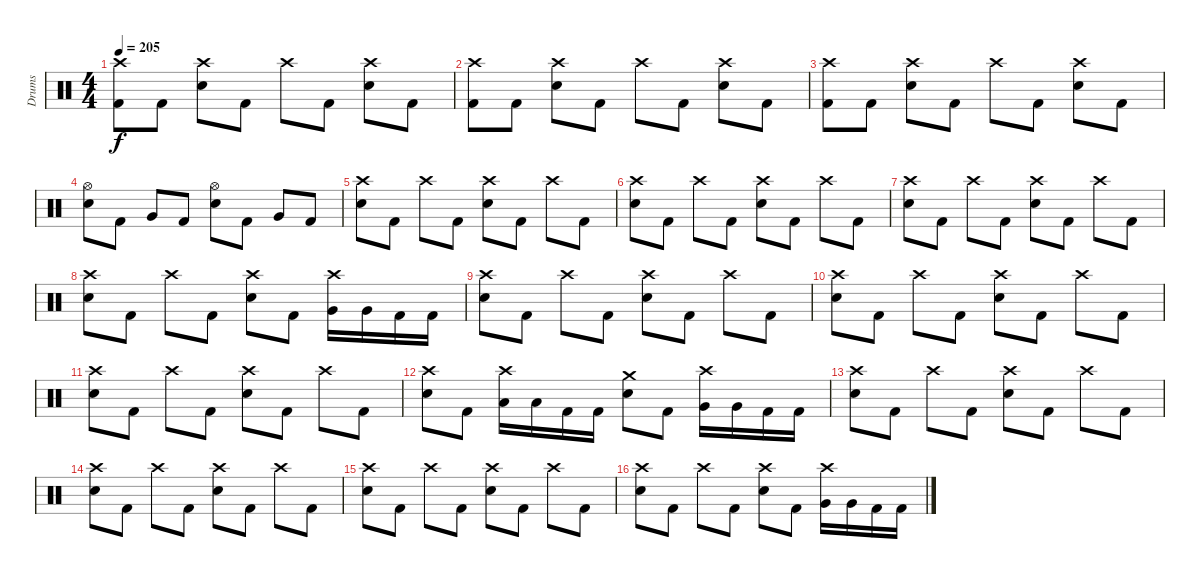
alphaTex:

\track ("Drums" "Drums") {instrument percussion}
\staff {score}
\articulation defaults
\ts (4 4)
\tempo 205
\clef neutral
\ks c
("Crash high (hit)" "Kick (hit) 2").8{dy f} "Kick (hit) 2".8 ("Crash high (hit)" "Electric Snare (hit)").8 "Kick (hit) 2".8 "Crash high (hit)".8 "Kick (hit) 2".8 ("Crash high (hit)" "Electric Snare (hit)").8 "Kick (hit) 2".8 |
("Crash high (hit)" "Kick (hit) 2").8 "Kick (hit) 2".8 ("Crash high (hit)" "Electric Snare (hit)").8 "Kick (hit) 2".8 "Crash high (hit)".8 "Kick (hit) 2".8 ("Crash high (hit)" "Electric Snare (hit)").8 "Kick (hit) 2".8 |
("Crash high (hit)" "Kick (hit) 2").8 "Kick (hit) 2".8 ("Crash high (hit)" "Electric Snare (hit)").8 "Kick (hit) 2".8 "Crash high (hit)".8 "Kick (hit) 2".8 ("Crash high (hit)" "Electric Snare (hit)").8 "Kick (hit) 2".8 |
("Hi-Hat (open)" "Electric Snare (hit)").8 "Kick (hit) 2".8 "Very Low Tom (hit)".8 "Kick (hit) 2".8 ("Hi-Hat (open)" "Electric Snare (hit)").8 "Kick (hit) 2".8 "Very Low Tom (hit)".8 "Kick (hit) 2".8 |
("Crash high (hit)" "Electric Snare (hit)").8 "Kick (hit) 2".8 "Crash high (hit)".8 "Kick (hit) 2".8 ("Crash high (hit)" "Electric Snare (hit)").8 "Kick (hit) 2".8 "Crash high (hit)".8 "Kick (hit) 2".8 |
("Crash high (hit)" "Electric Snare (hit)").8 "Kick (hit) 2".8 "Crash high (hit)".8 "Kick (hit) 2".8 ("Crash high (hit)" "Electric Snare (hit)").8 "Kick (hit) 2".8 "Crash high (hit)".8 "Kick (hit) 2".8 |
("Crash high (hit)" "Electric Snare (hit)").8 "Kick (hit) 2".8 "Crash high (hit)".8 "Kick (hit) 2".8 ("Crash high (hit)" "Electric Snare (hit)").8 "Kick (hit) 2".8 "Crash high (hit)".8 "Kick (hit) 2".8 |
("Crash high (hit)" "Electric Snare (hit)").8 "Kick (hit) 2".8 "Crash high (hit)".8 "Kick (hit) 2".8 ("Crash high (hit)" "Electric Snare (hit)").8 "Kick (hit) 2".8 ("Crash high (hit)" "Very Low Tom (hit)").16 "Very Low Tom (hit)".16 "Kick (hit) 2".16 "Kick (hit) 2".16 |
("Crash high (hit)" "Electric Snare (hit)").8 "Kick (hit) 2".8 "Crash high (hit)".8 "Kick (hit) 2".8 ("Crash high (hit)" "Electric Snare (hit)").8 "Kick (hit) 2".8 "Crash high (hit)".8 "Kick (hit) 2".8 |
("Crash high (hit)" "Electric Snare (hit)").8 "Kick (hit) 2".8 "Crash high (hit)".8 "Kick (hit) 2".8 ("Crash high (hit)" "Electric Snare (hit)").8 "Kick (hit) 2".8 "Crash high (hit)".8 "Kick (hit) 2".8 |
("Crash high (hit)" "Electric Snare (hit)").8 "Kick (hit) 2".8 "Crash high (hit)".8 "Kick (hit) 2".8 ("Crash high (hit)" "Electric Snare (hit)").8 "Kick (hit) 2".8 "Crash high (hit)".8 "Kick (hit) 2".8 |
("Crash high (hit)" "Electric Snare (hit)").8 "Kick (hit) 2".8 ("Crash high (hit)" "Low Tom (hit)").16 "Low Tom (hit)".16 "Kick (hit) 2".16 "Kick (hit) 2".16 ("Crash medium (hit)" "Electric Snare (hit)").8 "Kick (hit) 2".8 ("Crash high (hit)" "Very Low Tom (hit)").16 "Very Low Tom (hit)".16 "Kick (hit) 2".16 "Kick (hit) 2".16 |
("Crash high (hit)" "Electric Snare (hit)").8 "Kick (hit) 2".8 "Crash high (hit)".8 "Kick (hit) 2".8 ("Crash high (hit)" "Electric Snare (hit)").8 "Kick (hit) 2".8 "Crash high (hit)".8 "Kick (hit) 2".8 |
("Crash high (hit)" "Electric Snare (hit)").8 "Kick (hit) 2".8 "Crash high (hit)".8 "Kick (hit) 2".8 ("Crash high (hit)" "Electric Snare (hit)").8 "Kick (hit) 2".8 "Crash high (hit)".8 "Kick (hit) 2".8 |
("Crash high (hit)" "Electric Snare (hit)").8 "Kick (hit) 2".8 "Crash high (hit)".8 "Kick (hit) 2".8 ("Crash high (hit)" "Electric Snare (hit)").8 "Kick (hit) 2".8 "Crash high (hit)".8 "Kick (hit) 2".8 |
("Crash high (hit)" "Electric Snare (hit)").8 "Kick (hit) 2".8 "Crash high (hit)".8 "Kick (hit) 2".8 ("Crash high (hit)" "Electric Snare (hit)").8 "Kick (hit) 2".8 ("Crash high (hit)" "Very Low Tom (hit)").16 "Very Low Tom (hit)".16 "Kick (hit) 2".16 "Kick (hit) 2".16
